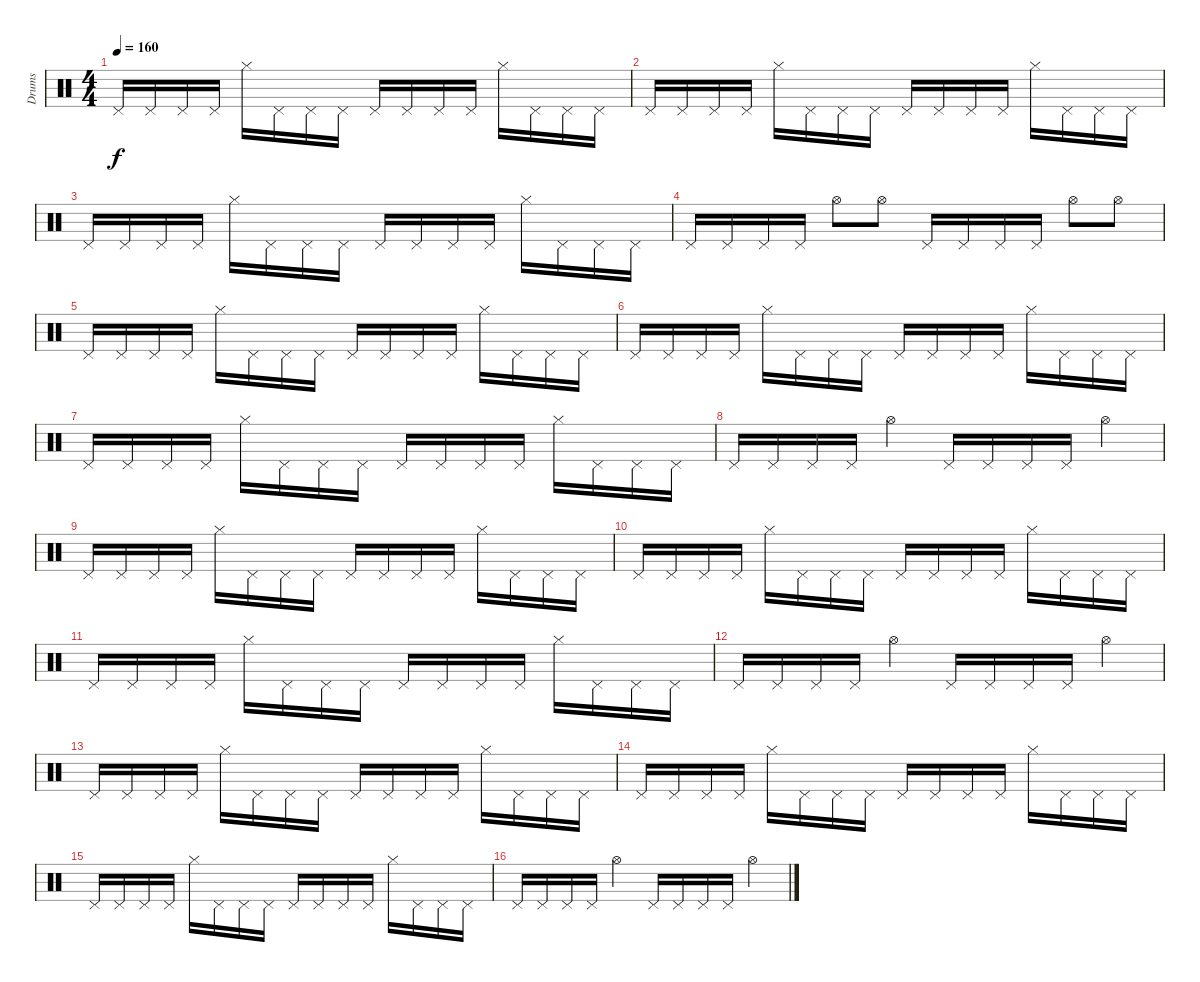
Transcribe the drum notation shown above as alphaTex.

\track ("Drums" "Drums") {instrument percussion}
\staff {score}
\articulation defaults
\ts (4 4)
\tempo 160
\clef neutral
\ks c "Pedal Hi-Hat (hit)".16{dy f} "Pedal Hi-Hat (hit)".16 "Pedal Hi-Hat (hit)".16 "Pedal Hi-Hat (hit)".16 "Hi-Hat (closed)".16 "Pedal Hi-Hat (hit)".16 "Pedal Hi-Hat (hit)".16 "Pedal Hi-Hat (hit)".16 "Pedal Hi-Hat (hit)".16 "Pedal Hi-Hat (hit)".16 "Pedal Hi-Hat (hit)".16 "Pedal Hi-Hat (hit)".16 "Hi-Hat (closed)".16 "Pedal Hi-Hat (hit)".16 "Pedal Hi-Hat (hit)".16 "Pedal Hi-Hat (hit)".16
|
"Pedal Hi-Hat (hit)".16 "Pedal Hi-Hat (hit)".16 "Pedal Hi-Hat (hit)".16 "Pedal Hi-Hat (hit)".16 "Hi-Hat (closed)".16 "Pedal Hi-Hat (hit)".16 "Pedal Hi-Hat (hit)".16 "Pedal Hi-Hat (hit)".16 "Pedal Hi-Hat (hit)".16 "Pedal Hi-Hat (hit)".16 "Pedal Hi-Hat (hit)".16 "Pedal Hi-Hat (hit)".16 "Hi-Hat (closed)".16 "Pedal Hi-Hat (hit)".16 "Pedal Hi-Hat (hit)".16 "Pedal Hi-Hat (hit)".16 |
"Pedal Hi-Hat (hit)".16 "Pedal Hi-Hat (hit)".16 "Pedal Hi-Hat (hit)".16 "Pedal Hi-Hat (hit)".16 "Hi-Hat (closed)".16 "Pedal Hi-Hat (hit)".16 "Pedal Hi-Hat (hit)".16 "Pedal Hi-Hat (hit)".16 "Pedal Hi-Hat (hit)".16 "Pedal Hi-Hat (hit)".16 "Pedal Hi-Hat (hit)".16 "Pedal Hi-Hat (hit)".16 "Hi-Hat (closed)".16 "Pedal Hi-Hat (hit)".16 "Pedal Hi-Hat (hit)".16 "Pedal Hi-Hat (hit)".16 |
"Pedal Hi-Hat (hit)".16 "Pedal Hi-Hat (hit)".16 "Pedal Hi-Hat (hit)".16 "Pedal Hi-Hat (hit)".16 "Hi-Hat (open)".8 "Hi-Hat (open)".8 "Pedal Hi-Hat (hit)".16 "Pedal Hi-Hat (hit)".16 "Pedal Hi-Hat (hit)".16 "Pedal Hi-Hat (hit)".16 "Hi-Hat (open)".8 "Hi-Hat (open)".8 |
"Pedal Hi-Hat (hit)".16 "Pedal Hi-Hat (hit)".16 "Pedal Hi-Hat (hit)".16 "Pedal Hi-Hat (hit)".16 "Hi-Hat (closed)".16 "Pedal Hi-Hat (hit)".16 "Pedal Hi-Hat (hit)".16 "Pedal Hi-Hat (hit)".16 "Pedal Hi-Hat (hit)".16 "Pedal Hi-Hat (hit)".16 "Pedal Hi-Hat (hit)".16 "Pedal Hi-Hat (hit)".16 "Hi-Hat (closed)".16 "Pedal Hi-Hat (hit)".16 "Pedal Hi-Hat (hit)".16 "Pedal Hi-Hat (hit)".16 |
"Pedal Hi-Hat (hit)".16 "Pedal Hi-Hat (hit)".16 "Pedal Hi-Hat (hit)".16 "Pedal Hi-Hat (hit)".16 "Hi-Hat (closed)".16 "Pedal Hi-Hat (hit)".16 "Pedal Hi-Hat (hit)".16 "Pedal Hi-Hat (hit)".16 "Pedal Hi-Hat (hit)".16 "Pedal Hi-Hat (hit)".16 "Pedal Hi-Hat (hit)".16 "Pedal Hi-Hat (hit)".16 "Hi-Hat (closed)".16 "Pedal Hi-Hat (hit)".16 "Pedal Hi-Hat (hit)".16 "Pedal Hi-Hat (hit)".16 |
"Pedal Hi-Hat (hit)".16 "Pedal Hi-Hat (hit)".16 "Pedal Hi-Hat (hit)".16 "Pedal Hi-Hat (hit)".16 "Hi-Hat (closed)".16 "Pedal Hi-Hat (hit)".16 "Pedal Hi-Hat (hit)".16 "Pedal Hi-Hat (hit)".16 "Pedal Hi-Hat (hit)".16 "Pedal Hi-Hat (hit)".16 "Pedal Hi-Hat (hit)".16 "Pedal Hi-Hat (hit)".16 "Hi-Hat (closed)".16 "Pedal Hi-Hat (hit)".16 "Pedal Hi-Hat (hit)".16 "Pedal Hi-Hat (hit)".16 |
"Pedal Hi-Hat (hit)".16 "Pedal Hi-Hat (hit)".16 "Pedal Hi-Hat (hit)".16 "Pedal Hi-Hat (hit)".16 "Hi-Hat (open)".4 "Pedal Hi-Hat (hit)".16 "Pedal Hi-Hat (hit)".16 "Pedal Hi-Hat (hit)".16 "Pedal Hi-Hat (hit)".16 "Hi-Hat (open)".4 |
"Pedal Hi-Hat (hit)".16 "Pedal Hi-Hat (hit)".16 "Pedal Hi-Hat (hit)".16 "Pedal Hi-Hat (hit)".16 "Hi-Hat (closed)".16 "Pedal Hi-Hat (hit)".16 "Pedal Hi-Hat (hit)".16 "Pedal Hi-Hat (hit)".16 "Pedal Hi-Hat (hit)".16 "Pedal Hi-Hat (hit)".16 "Pedal Hi-Hat (hit)".16 "Pedal Hi-Hat (hit)".16 "Hi-Hat (closed)".16 "Pedal Hi-Hat (hit)".16 "Pedal Hi-Hat (hit)".16 "Pedal Hi-Hat (hit)".16 |
"Pedal Hi-Hat (hit)".16 "Pedal Hi-Hat (hit)".16 "Pedal Hi-Hat (hit)".16 "Pedal Hi-Hat (hit)".16 "Hi-Hat (closed)".16 "Pedal Hi-Hat (hit)".16 "Pedal Hi-Hat (hit)".16 "Pedal Hi-Hat (hit)".16 "Pedal Hi-Hat (hit)".16 "Pedal Hi-Hat (hit)".16 "Pedal Hi-Hat (hit)".16 "Pedal Hi-Hat (hit)".16 "Hi-Hat (closed)".16 "Pedal Hi-Hat (hit)".16 "Pedal Hi-Hat (hit)".16 "Pedal Hi-Hat (hit)".16 |
"Pedal Hi-Hat (hit)".16 "Pedal Hi-Hat (hit)".16 "Pedal Hi-Hat (hit)".16 "Pedal Hi-Hat (hit)".16 "Hi-Hat (closed)".16 "Pedal Hi-Hat (hit)".16 "Pedal Hi-Hat (hit)".16 "Pedal Hi-Hat (hit)".16 "Pedal Hi-Hat (hit)".16 "Pedal Hi-Hat (hit)".16 "Pedal Hi-Hat (hit)".16 "Pedal Hi-Hat (hit)".16 "Hi-Hat (closed)".16 "Pedal Hi-Hat (hit)".16 "Pedal Hi-Hat (hit)".16 "Pedal Hi-Hat (hit)".16 |
"Pedal Hi-Hat (hit)".16 "Pedal Hi-Hat (hit)".16 "Pedal Hi-Hat (hit)".16 "Pedal Hi-Hat (hit)".16 "Hi-Hat (open)".4 "Pedal Hi-Hat (hit)".16 "Pedal Hi-Hat (hit)".16 "Pedal Hi-Hat (hit)".16 "Pedal Hi-Hat (hit)".16 "Hi-Hat (open)".4 |
"Pedal Hi-Hat (hit)".16 "Pedal Hi-Hat (hit)".16 "Pedal Hi-Hat (hit)".16 "Pedal Hi-Hat (hit)".16 "Hi-Hat (closed)".16 "Pedal Hi-Hat (hit)".16 "Pedal Hi-Hat (hit)".16 "Pedal Hi-Hat (hit)".16 "Pedal Hi-Hat (hit)".16 "Pedal Hi-Hat (hit)".16 "Pedal Hi-Hat (hit)".16 "Pedal Hi-Hat (hit)".16 "Hi-Hat (closed)".16 "Pedal Hi-Hat (hit)".16 "Pedal Hi-Hat (hit)".16 "Pedal Hi-Hat (hit)".16 |
"Pedal Hi-Hat (hit)".16 "Pedal Hi-Hat (hit)".16 "Pedal Hi-Hat (hit)".16 "Pedal Hi-Hat (hit)".16 "Hi-Hat (closed)".16 "Pedal Hi-Hat (hit)".16 "Pedal Hi-Hat (hit)".16 "Pedal Hi-Hat (hit)".16 "Pedal Hi-Hat (hit)".16 "Pedal Hi-Hat (hit)".16 "Pedal Hi-Hat (hit)".16 "Pedal Hi-Hat (hit)".16 "Hi-Hat (closed)".16 "Pedal Hi-Hat (hit)".16 "Pedal Hi-Hat (hit)".16 "Pedal Hi-Hat (hit)".16 |
"Pedal Hi-Hat (hit)".16 "Pedal Hi-Hat (hit)".16 "Pedal Hi-Hat (hit)".16 "Pedal Hi-Hat (hit)".16 "Hi-Hat (closed)".16 "Pedal Hi-Hat (hit)".16 "Pedal Hi-Hat (hit)".16 "Pedal Hi-Hat (hit)".16 "Pedal Hi-Hat (hit)".16 "Pedal Hi-Hat (hit)".16 "Pedal Hi-Hat (hit)".16 "Pedal Hi-Hat (hit)".16 "Hi-Hat (closed)".16 "Pedal Hi-Hat (hit)".16 "Pedal Hi-Hat (hit)".16 "Pedal Hi-Hat (hit)".16 |
"Pedal Hi-Hat (hit)".16 "Pedal Hi-Hat (hit)".16 "Pedal Hi-Hat (hit)".16 "Pedal Hi-Hat (hit)".16 "Hi-Hat (open)".4 "Pedal Hi-Hat (hit)".16 "Pedal Hi-Hat (hit)".16 "Pedal Hi-Hat (hit)".16 "Pedal Hi-Hat (hit)".16 "Hi-Hat (open)".4
